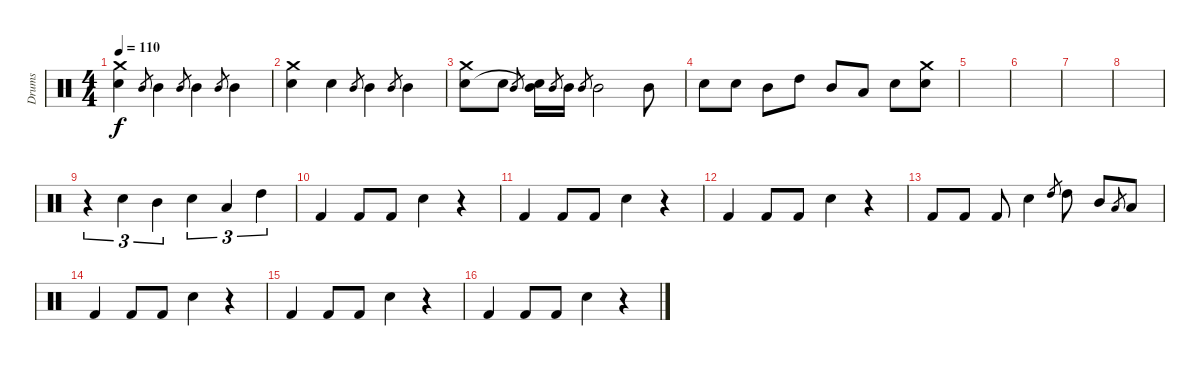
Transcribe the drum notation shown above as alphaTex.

\track ("Drums" "Drums") {instrument percussion}
\staff {score}
\articulation defaults
\ts (4 4)
\tempo 110
\clef neutral
\ks c
("Crash medium (hit)" "Electric Snare (hit)").4{dy f} "Mid Tom (hit)".8{gr} "Mid Tom (hit)".4 "Mid Tom (hit)".8{gr} "Mid Tom (hit)".4 "Mid Tom (hit)".8{gr} "Mid Tom (hit)".4 |
("Crash medium (hit)" "Electric Snare (hit)").4 "Electric Snare (hit)".4 "Mid Tom (hit)".8{gr} "Mid Tom (hit)".4 "Mid Tom (hit)".8{gr} "Mid Tom (hit)".4 |
("Crash medium (hit)" "Electric Snare (hit)").8 "Electric Snare (hit)".8 "Mid Tom (hit)".8{gr} ("Mid Tom (hit)" "Snare (hit)"{t}).16 "Mid Tom (hit)".8{gr} "Mid Tom (hit)".16 "Mid Tom (hit)".8{gr} "Mid Tom (hit)".2 "Mid Tom (hit)".8 |
"Electric Snare (hit)".8 "Electric Snare (hit)".8 "Mid Tom (hit)".8 "High Tom (hit)".8 "Mid Tom (hit)".8 "Low Tom (hit)".8 "Electric Snare (hit)".8 ("Crash medium (hit)" "Electric Snare (hit)").8 |
|
|
|
|
r.4{tu (3 2)} "Electric Snare (hit)".4{tu (3 2)} "Mid Tom (hit)".4{tu (3 2)} "Electric Snare (hit)".4{tu (3 2)} "Low Tom (hit)".4{tu (3 2)} "High Tom (hit)".4{tu (3 2)} |
"Kick (hit) 2".4 "Kick (hit) 2".8 "Kick (hit) 2".8 "Electric Snare (hit)".4 r.4 |
"Kick (hit) 2".4 "Kick (hit) 2".8 "Kick (hit) 2".8 "Electric Snare (hit)".4 r.4 |
"Kick (hit) 2".4 "Kick (hit) 2".8 "Kick (hit) 2".8 "Electric Snare (hit)".4 r.4 |
"Kick (hit) 2".8 "Kick (hit) 2".8 "Kick (hit) 2".8 "Electric Snare (hit)".4 "High Tom (hit)".8{gr} "High Tom (hit)".8 "Mid Tom (hit)".8 "Low Tom (hit)".8{gr} "Low Tom (hit)".8 |
"Kick (hit) 2".4 "Kick (hit) 2".8 "Kick (hit) 2".8 "Electric Snare (hit)".4 r.4 |
"Kick (hit) 2".4 "Kick (hit) 2".8 "Kick (hit) 2".8 "Electric Snare (hit)".4 r.4 |
"Kick (hit) 2".4 "Kick (hit) 2".8 "Kick (hit) 2".8 "Electric Snare (hit)".4 r.4
